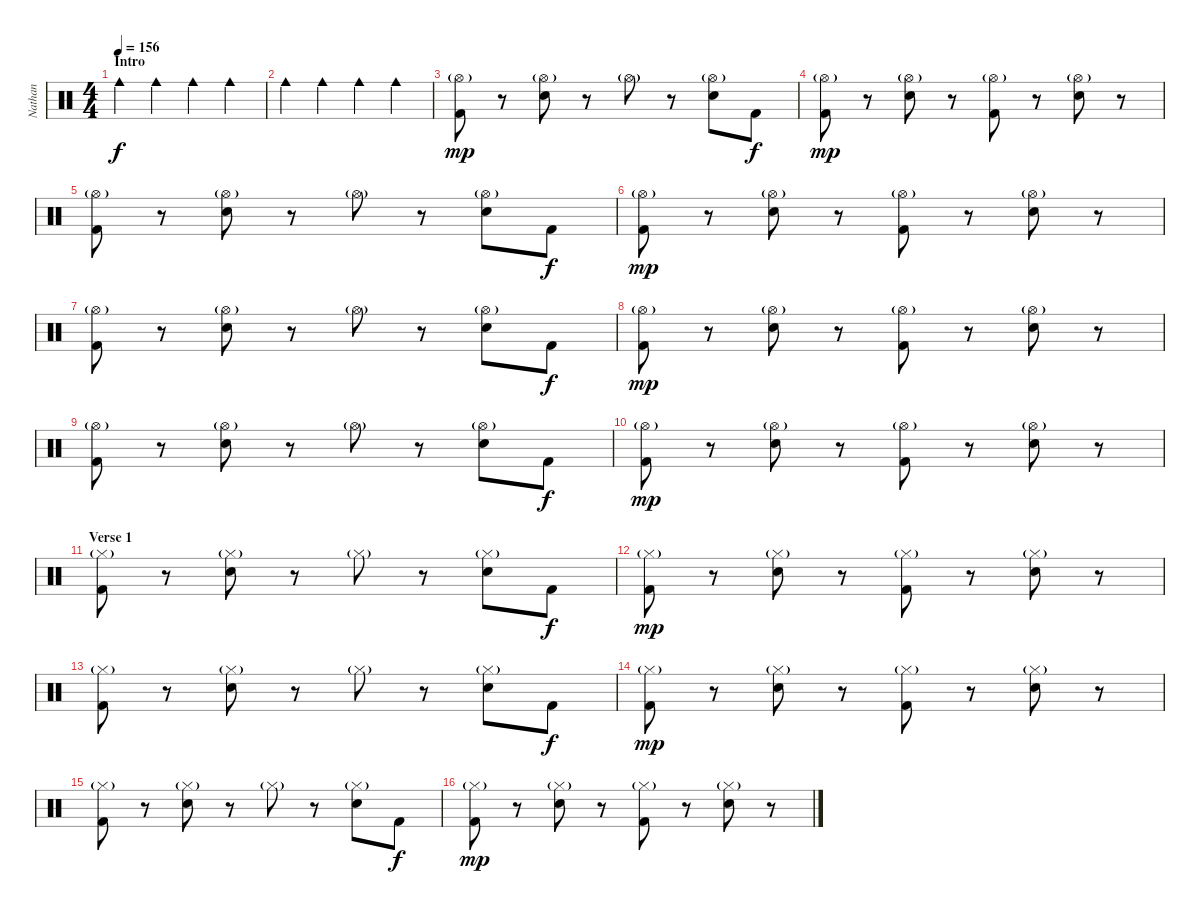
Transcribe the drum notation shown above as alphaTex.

\track ("Nathan" "Nathan") {instrument percussion}
\staff {score}
\articulation defaults
\ts (4 4)
\section ("" "Intro ")
\tempo 156
\clef neutral
\ks c "Cowbell medium (hit)".4{dy f} "Cowbell medium (hit)".4 "Cowbell medium (hit)".4 "Cowbell medium (hit)".4
|
"Cowbell medium (hit)".4 "Cowbell medium (hit)".4 "Cowbell medium (hit)".4 "Cowbell medium (hit)".4 |
("Hi-Hat (open)"{g} "Kick (hit) 2").8{dy mp} r.8 ("Hi-Hat (open)"{g} "Electric Snare (hit)").8 r.8 "Hi-Hat (open)"{g}.8 r.8 ("Hi-Hat (open)"{g} "Electric Snare (hit)").8 "Kick (hit) 2".8{dy f} |
("Hi-Hat (open)"{g} "Kick (hit) 2").8{dy mp} r.8 ("Hi-Hat (open)"{g} "Electric Snare (hit)").8 r.8 ("Hi-Hat (open)"{g} "Kick (hit) 2").8 r.8 ("Hi-Hat (open)"{g} "Electric Snare (hit)").8 r.8 |
("Hi-Hat (open)"{g} "Kick (hit) 2").8 r.8 ("Hi-Hat (open)"{g} "Electric Snare (hit)").8 r.8 "Hi-Hat (open)"{g}.8 r.8 ("Hi-Hat (open)"{g} "Electric Snare (hit)").8 "Kick (hit) 2".8{dy f} |
("Hi-Hat (open)"{g} "Kick (hit) 2").8{dy mp} r.8 ("Hi-Hat (open)"{g} "Electric Snare (hit)").8 r.8 ("Hi-Hat (open)"{g} "Kick (hit) 2").8 r.8 ("Hi-Hat (open)"{g} "Electric Snare (hit)").8 r.8 |
("Hi-Hat (open)"{g} "Kick (hit) 2").8 r.8 ("Hi-Hat (open)"{g} "Electric Snare (hit)").8 r.8 "Hi-Hat (open)"{g}.8 r.8 ("Hi-Hat (open)"{g} "Electric Snare (hit)").8 "Kick (hit) 2".8{dy f} |
("Hi-Hat (open)"{g} "Kick (hit) 2").8{dy mp} r.8 ("Hi-Hat (open)"{g} "Electric Snare (hit)").8 r.8 ("Hi-Hat (open)"{g} "Kick (hit) 2").8 r.8 ("Hi-Hat (open)"{g} "Electric Snare (hit)").8 r.8 |
("Hi-Hat (open)"{g} "Kick (hit) 2").8 r.8 ("Hi-Hat (open)"{g} "Electric Snare (hit)").8 r.8 "Hi-Hat (open)"{g}.8 r.8 ("Hi-Hat (open)"{g} "Electric Snare (hit)").8 "Kick (hit) 2".8{dy f} |
("Hi-Hat (open)"{g} "Kick (hit) 2").8{dy mp} r.8 ("Hi-Hat (open)"{g} "Electric Snare (hit)").8 r.8 ("Hi-Hat (open)"{g} "Kick (hit) 2").8 r.8 ("Hi-Hat (open)"{g} "Electric Snare (hit)").8 r.8 |
\section ("" "Verse 1")
("Hi-Hat (closed)"{g} "Kick (hit) 2").8 r.8 ("Hi-Hat (closed)"{g} "Electric Snare (hit)").8 r.8 "Hi-Hat (closed)"{g}.8 r.8 ("Hi-Hat (closed)"{g} "Electric Snare (hit)").8 "Kick (hit) 2".8{dy f} |
("Hi-Hat (closed)"{g} "Kick (hit) 2").8{dy mp} r.8 ("Hi-Hat (closed)"{g} "Electric Snare (hit)").8 r.8 ("Hi-Hat (closed)"{g} "Kick (hit) 2").8 r.8 ("Hi-Hat (closed)"{g} "Electric Snare (hit)").8 r.8 |
("Hi-Hat (closed)"{g} "Kick (hit) 2").8 r.8 ("Hi-Hat (closed)"{g} "Electric Snare (hit)").8 r.8 "Hi-Hat (closed)"{g}.8 r.8 ("Hi-Hat (closed)"{g} "Electric Snare (hit)").8 "Kick (hit) 2".8{dy f} |
("Hi-Hat (closed)"{g} "Kick (hit) 2").8{dy mp} r.8 ("Hi-Hat (closed)"{g} "Electric Snare (hit)").8 r.8 ("Hi-Hat (closed)"{g} "Kick (hit) 2").8 r.8 ("Hi-Hat (closed)"{g} "Electric Snare (hit)").8 r.8 |
("Hi-Hat (closed)"{g} "Kick (hit) 2").8 r.8 ("Hi-Hat (closed)"{g} "Electric Snare (hit)").8 r.8 "Hi-Hat (closed)"{g}.8 r.8 ("Hi-Hat (closed)"{g} "Electric Snare (hit)").8 "Kick (hit) 2".8{dy f} |
("Hi-Hat (closed)"{g} "Kick (hit) 2").8{dy mp} r.8 ("Hi-Hat (closed)"{g} "Electric Snare (hit)").8 r.8 ("Hi-Hat (closed)"{g} "Kick (hit) 2").8 r.8 ("Hi-Hat (closed)"{g} "Electric Snare (hit)").8 r.8
